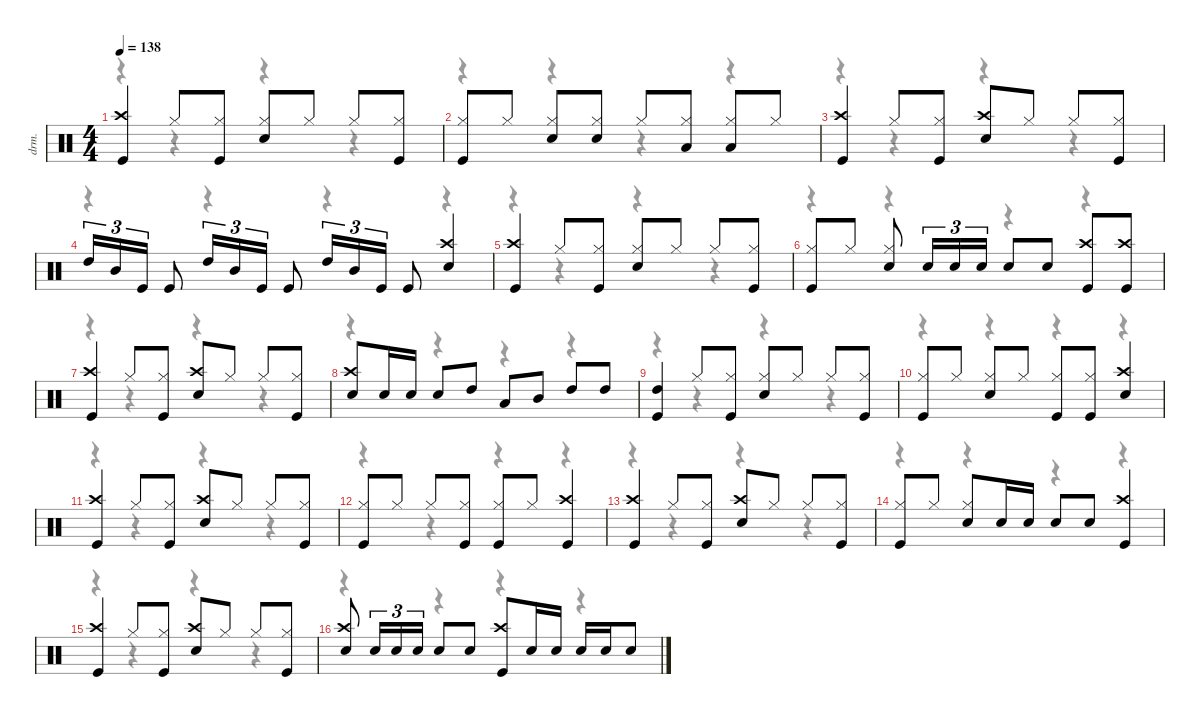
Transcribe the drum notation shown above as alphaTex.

\defaultSystemsLayout 4
\hideDynamics
\bracketExtendMode nobrackets
\track ("Drumkit" "drm.") {instrument percussion}
\staff {score}
\articulation defaults
\voice
\ts (4 4)
\tempo 138
\clef neutral
\ks c
("Kick (hit)" "Crash high (hit)").4{dy f} "Hi-Hat (closed)".8 ("Hi-Hat (closed)" "Kick (hit)").8 ("Snare (hit) 2" "Hi-Hat (closed)").8 "Hi-Hat (closed)".8 "Hi-Hat (closed)".8 ("Hi-Hat (closed)" "Kick (hit)").8 |
("Kick (hit)" "Hi-Hat (closed)").8 "Hi-Hat (closed)".8 ("Snare (hit) 2" "Hi-Hat (closed)").8 ("Snare (hit) 2" "Hi-Hat (closed)").8 "Hi-Hat (closed)".8 ("Low Tom (hit)" "Hi-Hat (closed)").8 ("Low Tom (hit)" "Hi-Hat (closed)").8 "Hi-Hat (closed)".8 |
("Kick (hit)" "Crash high (hit)").4 "Hi-Hat (closed)".8 ("Hi-Hat (closed)" "Kick (hit)").8 ("Snare (hit) 2" "Crash high (hit)").8 "Hi-Hat (closed)".8 "Hi-Hat (closed)".8 ("Hi-Hat (closed)" "Kick (hit)").8 |
"High Tom (hit)".16{tu (3 2)} "Mid Tom (hit)".16{tu (3 2)} "Kick (hit)".16{tu (3 2)} "Kick (hit)".8 "High Tom (hit)".16{tu (3 2)} "Mid Tom (hit)".16{tu (3 2)} "Kick (hit)".16{tu (3 2)} "Kick (hit)".8 "High Tom (hit)".16{tu (3 2)} "Mid Tom (hit)".16{tu (3 2)} "Kick (hit)".16{tu (3 2)} "Kick (hit)".8 ("Crash high (hit)" "Snare (hit) 2").4 |
("Kick (hit)" "Crash high (hit)").4 "Hi-Hat (closed)".8 ("Hi-Hat (closed)" "Kick (hit)").8 ("Snare (hit) 2" "Hi-Hat (closed)").8 "Hi-Hat (closed)".8 "Hi-Hat (closed)".8 ("Hi-Hat (closed)" "Kick (hit)").8 |
("Hi-Hat (closed)" "Kick (hit)").8 "Hi-Hat (closed)".8 ("Snare (hit) 2" "Hi-Hat (closed)").8 "Snare (hit) 2".16{tu (3 2)} "Snare (hit) 2".16{tu (3 2)} "Snare (hit) 2".16{tu (3 2)} "Snare (hit) 2".8 "Snare (hit) 2".8 ("Crash high (hit)" "Kick (hit)").8 ("Crash high (hit)" "Kick (hit)").8 |
("Kick (hit)" "Crash high (hit)").4 "Hi-Hat (closed)".8 ("Hi-Hat (closed)" "Kick (hit)").8 ("Snare (hit) 2" "Crash high (hit)").8 "Hi-Hat (closed)".8 "Hi-Hat (closed)".8 ("Hi-Hat (closed)" "Kick (hit)").8 |
("Snare (hit) 2" "Crash high (hit)").8 "Snare (hit) 2".16 "Snare (hit) 2".16 "Snare (hit) 2".8 "High Tom (hit)".8 "Low Tom (hit)".8 "Mid Tom (hit)".8 "High Tom (hit)".8 "High Tom (hit)".8 |
("Kick (hit)" "High Tom (hit)").4 "Hi-Hat (closed)".8 ("Hi-Hat (closed)" "Kick (hit)").8 ("Snare (hit) 2" "Hi-Hat (closed)").8 "Hi-Hat (closed)".8 "Hi-Hat (closed)".8 ("Hi-Hat (closed)" "Kick (hit)").8 |
("Kick (hit)" "Hi-Hat (closed)").8 "Hi-Hat (closed)".8 ("Snare (hit) 2" "Hi-Hat (closed)").8 "Hi-Hat (closed)".8 ("Kick (hit)" "Hi-Hat (closed)").8 ("Kick (hit)" "Hi-Hat (closed)").8 ("Snare (hit) 2" "Crash high (hit)").4 |
("Kick (hit)" "Crash high (hit)").4 "Hi-Hat (closed)".8 ("Hi-Hat (closed)" "Kick (hit)").8 ("Snare (hit) 2" "Crash high (hit)").8 "Hi-Hat (closed)".8 "Hi-Hat (closed)".8 ("Hi-Hat (closed)" "Kick (hit)").8 |
("Kick (hit)" "Hi-Hat (closed)").8 "Hi-Hat (closed)".8 "Hi-Hat (closed)".8 ("Kick (hit)" "Hi-Hat (closed)").8 ("Kick (hit)" "Hi-Hat (closed)").8 "Hi-Hat (closed)".8 ("Kick (hit)" "Crash high (hit)").4 |
("Kick (hit)" "Crash high (hit)").4 "Hi-Hat (closed)".8 ("Hi-Hat (closed)" "Kick (hit)").8 ("Crash high (hit)" "Snare (hit) 2").8 "Hi-Hat (closed)".8 "Hi-Hat (closed)".8 ("Hi-Hat (closed)" "Kick (hit)").8 |
("Hi-Hat (closed)" "Kick (hit)").8 "Hi-Hat (closed)".8 ("Snare (hit) 2" "Hi-Hat (closed)").8 "Snare (hit) 2".16 "Snare (hit) 2".16 "Snare (hit) 2".8 "Snare (hit) 2".8 ("Crash high (hit)" "Kick (hit)").4 |
("Kick (hit)" "Crash high (hit)").4 "Hi-Hat (closed)".8 ("Hi-Hat (closed)" "Kick (hit)").8 ("Crash high (hit)" "Snare (hit) 2").8 "Hi-Hat (closed)".8 "Hi-Hat (closed)".8 ("Hi-Hat (closed)" "Kick (hit)").8 |
("Snare (hit) 2" "Crash high (hit)").8 "Snare (hit) 2".16{tu (3 2)} "Snare (hit) 2".16{tu (3 2)} "Snare (hit) 2".16{tu (3 2)} "Snare (hit) 2".8 "Snare (hit) 2".8 ("Kick (hit)" "Crash high (hit)").8 "Snare (hit) 2".16 "Snare (hit) 2".16 "Snare (hit) 2".16 "Snare (hit) 2".16 "Snare (hit) 2".8
\voice
\clef neutral
\ottava regular
\simile none
\ks c
r.4{dy mf} r.4 r.4 r.4 |
r.4 r.4 r.4 r.4 |
r.4 r.4 r.4 r.4 |
r.4 r.4 r.4 r.4 |
r.4 r.4 r.4 r.4 |
r.4 r.4 r.4 r.4 |
r.4 r.4 r.4 r.4 |
r.4 r.4 r.4 r.4 |
r.4 r.4 r.4 r.4 |
r.4 r.4 r.4 r.4 |
r.4 r.4 r.4 r.4 |
r.4 r.4 r.4 r.4 |
r.4 r.4 r.4 r.4 |
r.4 r.4 r.4 r.4 |
r.4 r.4 r.4 r.4 |
r.4 r.4 r.4 r.4
